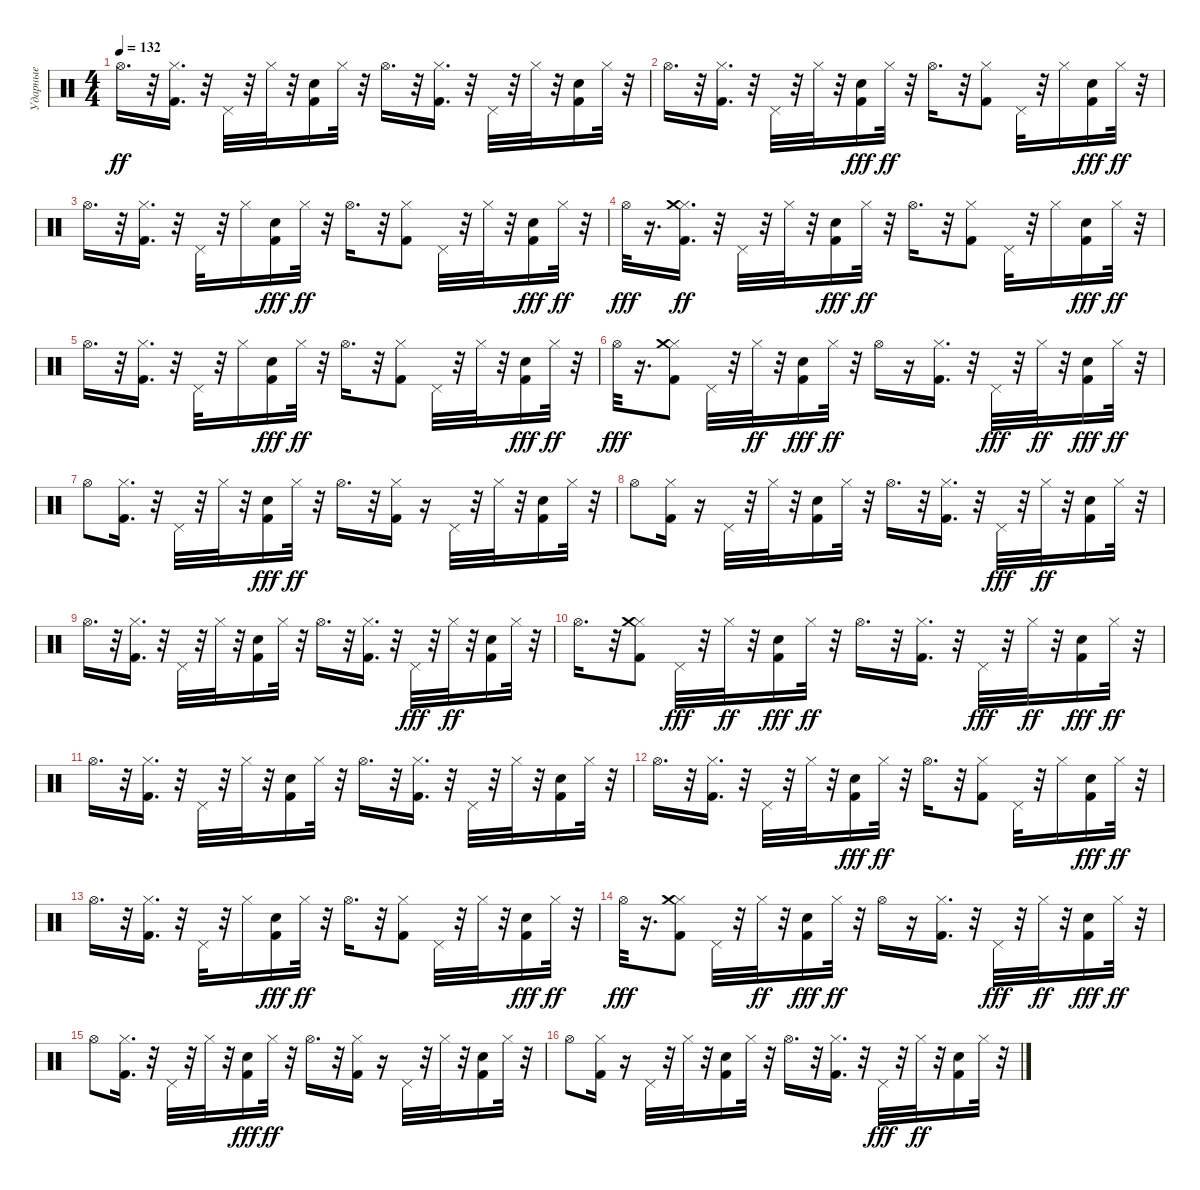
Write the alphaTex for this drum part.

\track ("Ударные" "Ударные") {instrument percussion}
\staff {score}
\articulation defaults
\ts (4 4)
\tempo 132
\clef neutral
\ks c "Hi-Hat (open)".16{d dy ff}
r.32 ("Kick (hit) 2" "Hi-Hat (closed)").16{d} r.32 "Pedal Hi-Hat (hit)".32 r.32 "Hi-Hat (closed)".32 r.32 ("Kick (hit) 2" "Snare (hit) 2").16 "Hi-Hat (closed)".32 r.32 "Hi-Hat (open)".16{d} r.32 ("Kick (hit) 2" "Hi-Hat (closed)").16{d} r.32 "Pedal Hi-Hat (hit)".32 r.32 "Hi-Hat (closed)".32 r.32 ("Kick (hit) 2" "Snare (hit) 2").16 "Hi-Hat (closed)".32 r.32 |
"Hi-Hat (open)".16{d} r.32 ("Kick (hit) 2" "Hi-Hat (closed)").16{d} r.32 "Pedal Hi-Hat (hit)".32 r.32 "Hi-Hat (closed)".32 r.32 ("Kick (hit) 2" "Snare (hit) 2").16{dy fff} "Hi-Hat (closed)".32{dy ff} r.32 "Hi-Hat (open)".16{d} r.32 ("Kick (hit) 2" "Hi-Hat (closed)").8 "Pedal Hi-Hat (hit)".32 r.32 "Hi-Hat (closed)".16 ("Kick (hit) 2" "Snare (hit) 2").16{dy fff} "Hi-Hat (closed)".32{dy ff} r.32 |
"Hi-Hat (open)".16{d} r.32 ("Kick (hit) 2" "Hi-Hat (closed)").16{d} r.32 "Pedal Hi-Hat (hit)".32 r.32 "Hi-Hat (closed)".16 ("Kick (hit) 2" "Snare (hit) 2").16{dy fff} "Hi-Hat (closed)".32{dy ff} r.32 "Hi-Hat (open)".16{d} r.32 ("Kick (hit) 2" "Hi-Hat (closed)").8 "Pedal Hi-Hat (hit)".32 r.32 "Hi-Hat (closed)".32 r.32 ("Kick (hit) 2" "Snare (hit) 2").16{dy fff} "Hi-Hat (closed)".32{dy ff} r.32 |
"Hi-Hat (open)".32{dy fff} r.16{d} ("Kick (hit) 2" "Hi-Hat (closed)" "Crash medium (hit)").16{d dy ff} r.32 "Pedal Hi-Hat (hit)".32 r.32 "Hi-Hat (closed)".32 r.32 ("Kick (hit) 2" "Snare (hit) 2").16{dy fff} "Hi-Hat (closed)".32{dy ff} r.32 "Hi-Hat (open)".16{d} r.32 ("Kick (hit) 2" "Hi-Hat (closed)").8 "Pedal Hi-Hat (hit)".32 r.32 "Hi-Hat (closed)".16 ("Kick (hit) 2" "Snare (hit) 2").16{dy fff} "Hi-Hat (closed)".32{dy ff} r.32 |
"Hi-Hat (open)".16{d} r.32 ("Kick (hit) 2" "Hi-Hat (closed)").16{d} r.32 "Pedal Hi-Hat (hit)".32 r.32 "Hi-Hat (closed)".16 ("Kick (hit) 2" "Snare (hit) 2").16{dy fff} "Hi-Hat (closed)".32{dy ff} r.32 "Hi-Hat (open)".16{d} r.32 ("Kick (hit) 2" "Hi-Hat (closed)").8 "Pedal Hi-Hat (hit)".32 r.32 "Hi-Hat (closed)".32 r.32 ("Kick (hit) 2" "Snare (hit) 2").16{dy fff} "Hi-Hat (closed)".32{dy ff} r.32 |
"Hi-Hat (open)".32{dy fff} r.16{d} ("Kick (hit) 2" "Hi-Hat (closed)" "Crash medium (hit)").8 "Pedal Hi-Hat (hit)".32 r.32 "Hi-Hat (closed)".32{dy ff} r.32 ("Kick (hit) 2" "Snare (hit) 2").16{dy fff} "Hi-Hat (closed)".32{dy ff} r.32 "Hi-Hat (open)".16 r.16 ("Kick (hit) 2" "Hi-Hat (closed)").16{d} r.32 "Pedal Hi-Hat (hit)".32{dy fff} r.32 "Hi-Hat (closed)".32{dy ff} r.32 ("Kick (hit) 2" "Snare (hit) 2").16{dy fff} "Hi-Hat (closed)".32{dy ff} r.32 |
"Hi-Hat (open)".8 ("Kick (hit) 2" "Hi-Hat (closed)").16{d} r.32 "Pedal Hi-Hat (hit)".32 r.32 "Hi-Hat (closed)".32 r.32 ("Kick (hit) 2" "Snare (hit) 2").16{dy fff} "Hi-Hat (closed)".32{dy ff} r.32 "Hi-Hat (open)".16{d} r.32 ("Kick (hit) 2" "Hi-Hat (closed)").16 r.16 "Pedal Hi-Hat (hit)".32 r.32 "Hi-Hat (closed)".32 r.32 ("Kick (hit) 2" "Snare (hit) 2").16 "Hi-Hat (closed)".32 r.32 |
"Hi-Hat (open)".8 ("Kick (hit) 2" "Hi-Hat (closed)").16 r.16 "Pedal Hi-Hat (hit)".32 r.32 "Hi-Hat (closed)".32 r.32 ("Kick (hit) 2" "Snare (hit) 2").16 "Hi-Hat (closed)".32 r.32 "Hi-Hat (open)".16{d} r.32 ("Kick (hit) 2" "Hi-Hat (closed)").16{d} r.32 "Pedal Hi-Hat (hit)".32{dy fff} r.32 "Hi-Hat (closed)".32{dy ff} r.32 ("Kick (hit) 2" "Snare (hit) 2").16 "Hi-Hat (closed)".32 r.32 |
"Hi-Hat (open)".16{d} r.32 ("Kick (hit) 2" "Hi-Hat (closed)").16{d} r.32 "Pedal Hi-Hat (hit)".32 r.32 "Hi-Hat (closed)".32 r.32 ("Kick (hit) 2" "Snare (hit) 2").16 "Hi-Hat (closed)".32 r.32 "Hi-Hat (open)".16{d} r.32 ("Kick (hit) 2" "Hi-Hat (closed)").16{d} r.32 "Pedal Hi-Hat (hit)".32{dy fff} r.32 "Hi-Hat (closed)".32{dy ff} r.32 ("Kick (hit) 2" "Snare (hit) 2").16 "Hi-Hat (closed)".32 r.32 |
"Hi-Hat (open)".16{d} r.32 ("Kick (hit) 2" "Hi-Hat (closed)" "Crash medium (hit)").8 "Pedal Hi-Hat (hit)".32{dy fff} r.32 "Hi-Hat (closed)".32{dy ff} r.32 ("Kick (hit) 2" "Snare (hit) 2").16{dy fff} "Hi-Hat (closed)".32{dy ff} r.32 "Hi-Hat (open)".16{d} r.32 ("Kick (hit) 2" "Hi-Hat (closed)").16{d} r.32 "Pedal Hi-Hat (hit)".32{dy fff} r.32 "Hi-Hat (closed)".32{dy ff} r.32 ("Kick (hit) 2" "Snare (hit) 2").16{dy fff} "Hi-Hat (closed)".32{dy ff} r.32 |
"Hi-Hat (open)".16{d} r.32 ("Kick (hit) 2" "Hi-Hat (closed)").16{d} r.32 "Pedal Hi-Hat (hit)".32 r.32 "Hi-Hat (closed)".32 r.32 ("Kick (hit) 2" "Snare (hit) 2").16 "Hi-Hat (closed)".32 r.32 "Hi-Hat (open)".16{d} r.32 ("Kick (hit) 2" "Hi-Hat (closed)").16{d} r.32 "Pedal Hi-Hat (hit)".32 r.32 "Hi-Hat (closed)".32 r.32 ("Kick (hit) 2" "Snare (hit) 2").16 "Hi-Hat (closed)".32 r.32 |
"Hi-Hat (open)".16{d} r.32 ("Kick (hit) 2" "Hi-Hat (closed)").16{d} r.32 "Pedal Hi-Hat (hit)".32 r.32 "Hi-Hat (closed)".32 r.32 ("Kick (hit) 2" "Snare (hit) 2").16{dy fff} "Hi-Hat (closed)".32{dy ff} r.32 "Hi-Hat (open)".16{d} r.32 ("Kick (hit) 2" "Hi-Hat (closed)").8 "Pedal Hi-Hat (hit)".32 r.32 "Hi-Hat (closed)".16 ("Kick (hit) 2" "Snare (hit) 2").16{dy fff} "Hi-Hat (closed)".32{dy ff} r.32 |
"Hi-Hat (open)".16{d} r.32 ("Kick (hit) 2" "Hi-Hat (closed)").16{d} r.32 "Pedal Hi-Hat (hit)".32 r.32 "Hi-Hat (closed)".16 ("Kick (hit) 2" "Snare (hit) 2").16{dy fff} "Hi-Hat (closed)".32{dy ff} r.32 "Hi-Hat (open)".16{d} r.32 ("Kick (hit) 2" "Hi-Hat (closed)").8 "Pedal Hi-Hat (hit)".32 r.32 "Hi-Hat (closed)".32 r.32 ("Kick (hit) 2" "Snare (hit) 2").16{dy fff} "Hi-Hat (closed)".32{dy ff} r.32 |
"Hi-Hat (open)".32{dy fff} r.16{d} ("Kick (hit) 2" "Hi-Hat (closed)" "Crash medium (hit)").8 "Pedal Hi-Hat (hit)".32 r.32 "Hi-Hat (closed)".32{dy ff} r.32 ("Kick (hit) 2" "Snare (hit) 2").16{dy fff} "Hi-Hat (closed)".32{dy ff} r.32 "Hi-Hat (open)".16 r.16 ("Kick (hit) 2" "Hi-Hat (closed)").16{d} r.32 "Pedal Hi-Hat (hit)".32{dy fff} r.32 "Hi-Hat (closed)".32{dy ff} r.32 ("Kick (hit) 2" "Snare (hit) 2").16{dy fff} "Hi-Hat (closed)".32{dy ff} r.32 |
"Hi-Hat (open)".8 ("Kick (hit) 2" "Hi-Hat (closed)").16{d} r.32 "Pedal Hi-Hat (hit)".32 r.32 "Hi-Hat (closed)".32 r.32 ("Kick (hit) 2" "Snare (hit) 2").16{dy fff} "Hi-Hat (closed)".32{dy ff} r.32 "Hi-Hat (open)".16{d} r.32 ("Kick (hit) 2" "Hi-Hat (closed)").16 r.16 "Pedal Hi-Hat (hit)".32 r.32 "Hi-Hat (closed)".32 r.32 ("Kick (hit) 2" "Snare (hit) 2").16 "Hi-Hat (closed)".32 r.32 |
"Hi-Hat (open)".8 ("Kick (hit) 2" "Hi-Hat (closed)").16 r.16 "Pedal Hi-Hat (hit)".32 r.32 "Hi-Hat (closed)".32 r.32 ("Kick (hit) 2" "Snare (hit) 2").16 "Hi-Hat (closed)".32 r.32 "Hi-Hat (open)".16{d} r.32 ("Kick (hit) 2" "Hi-Hat (closed)").16{d} r.32 "Pedal Hi-Hat (hit)".32{dy fff} r.32 "Hi-Hat (closed)".32{dy ff} r.32 ("Kick (hit) 2" "Snare (hit) 2").16 "Hi-Hat (closed)".32 r.32
